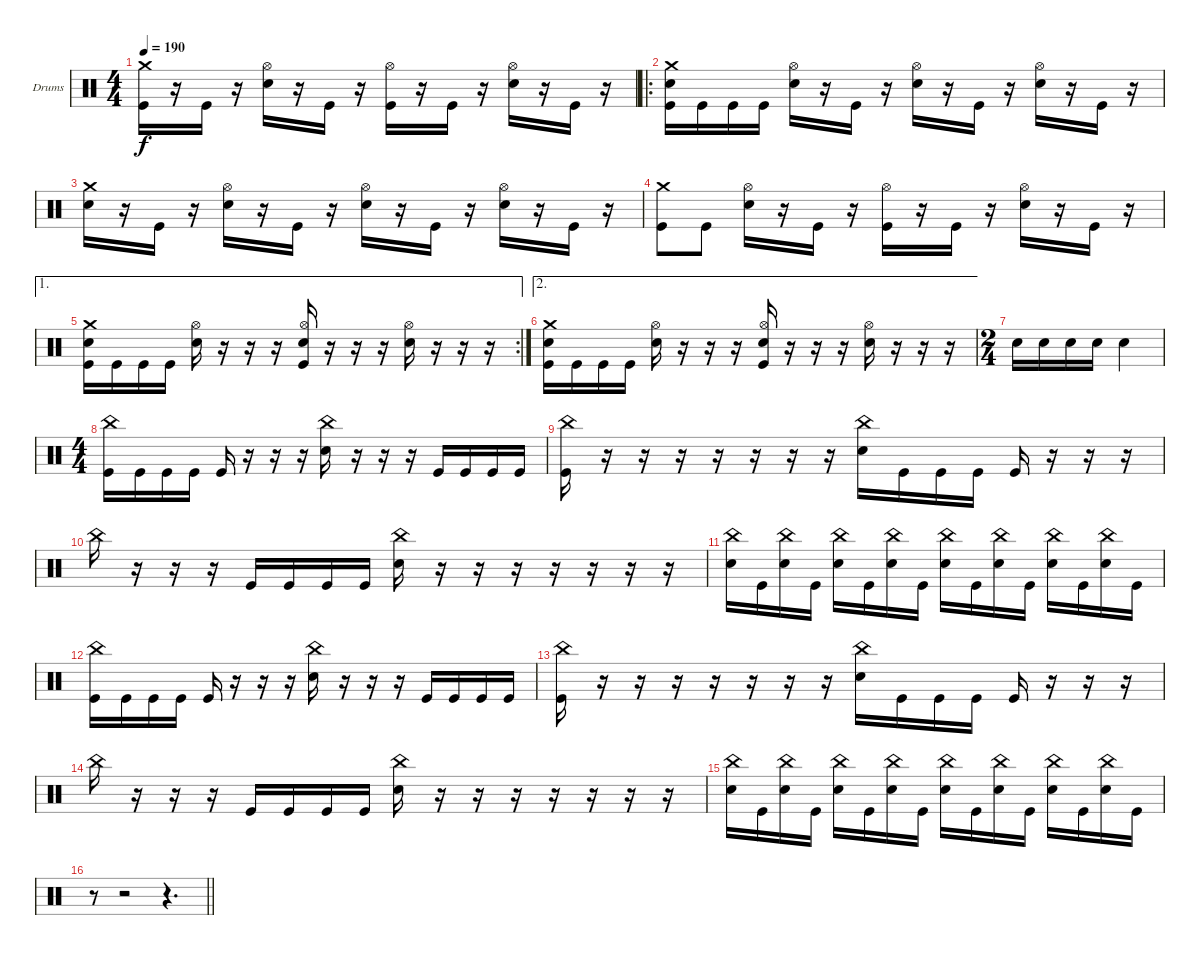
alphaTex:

\bracketExtendMode groupsimilarinstruments
\firstSystemTrackNameOrientation horizontal
\otherSystemsTrackNameOrientation horizontal
\track ("Drumkit" "Drums") {instrument percussion}
\staff {score}
\articulation defaults
\ts (4 4)
\tempo 190
\clef neutral
\ks c
("Crash medium (hit)" "Kick (hit)").16{dy f} r.16 "Kick (hit)".16 r.16 ("Hi-Hat (open)" "Snare (hit) 2").16 r.16 "Kick (hit)".16 r.16 ("Hi-Hat (open)" "Kick (hit)").16 r.16 "Kick (hit)".16 r.16 ("Hi-Hat (open)" "Snare (hit) 2").16 r.16 "Kick (hit)".16 r.16 |
\ro
("Crash medium (hit)" "Snare (hit) 2" "Kick (hit)").16 "Kick (hit)".16 "Kick (hit)".16 "Kick (hit)".16 ("Hi-Hat (open)" "Snare (hit) 2").16 r.16 "Kick (hit)".16 r.16 ("Hi-Hat (open)" "Snare (hit) 2").16 r.16 "Kick (hit)".16 r.16 ("Hi-Hat (open)" "Snare (hit) 2").16 r.16 "Kick (hit)".16 r.16 |
("Crash medium (hit)" "Snare (hit) 2").16 r.16 "Kick (hit)".16 r.16 ("Hi-Hat (open)" "Snare (hit) 2").16 r.16 "Kick (hit)".16 r.16 ("Hi-Hat (open)" "Snare (hit) 2").16 r.16 "Kick (hit)".16 r.16 ("Hi-Hat (open)" "Snare (hit) 2").16 r.16 "Kick (hit)".16 r.16 |
("Crash medium (hit)" "Kick (hit)").8 "Kick (hit)".8 ("Hi-Hat (open)" "Snare (hit) 2").16 r.16 "Kick (hit)".16 r.16 ("Hi-Hat (open)" "Kick (hit)").16 r.16 "Kick (hit)".16 r.16 ("Hi-Hat (open)" "Snare (hit) 2").16 r.16 "Kick (hit)".16 r.16 |
\ae 1
\rc 2
("Crash medium (hit)" "Snare (hit) 2" "Kick (hit)").16 "Kick (hit)".16 "Kick (hit)".16 "Kick (hit)".16 ("Hi-Hat (open)" "Snare (hit) 2").16 r.16 r.16 r.16 ("Hi-Hat (open)" "Snare (hit) 2" "Kick (hit)").16 r.16 r.16 r.16 ("Hi-Hat (open)" "Snare (hit) 2").16 r.16 r.16 r.16 |
\ae 2
("Crash medium (hit)" "Snare (hit) 2" "Kick (hit)").16 "Kick (hit)".16 "Kick (hit)".16 "Kick (hit)".16 ("Hi-Hat (open)" "Snare (hit) 2").16 r.16 r.16 r.16 ("Hi-Hat (open)" "Snare (hit) 2" "Kick (hit)").16 r.16 r.16 r.16 ("Hi-Hat (open)" "Snare (hit) 2").16 r.16 r.16 r.16 |
\ts (2 4)
\beaming (8 2 2)
"Snare (hit) 2".16 "Snare (hit) 2".16 "Snare (hit) 2".16 "Snare (hit) 2".16 "Snare (hit) 2".4 |
\ts (4 4)
\beaming (8 2 2 2 2)
("China (hit)" "Kick (hit)").16 "Kick (hit)".16 "Kick (hit)".16 "Kick (hit)".16 "Kick (hit)".16 r.16 r.16 r.16 ("China (hit)" "Snare (hit) 2").16 r.16 r.16 r.16 "Kick (hit)".16 "Kick (hit)".16 "Kick (hit)".16 "Kick (hit)".16 |
("China (hit)" "Kick (hit)").16 r.16 r.16 r.16 r.16 r.16 r.16 r.16 ("China (hit)" "Snare (hit) 2").16 "Kick (hit)".16 "Kick (hit)".16 "Kick (hit)".16 "Kick (hit)".16 r.16 r.16 r.16 |
"China (hit)".16 r.16 r.16 r.16 "Kick (hit)".16 "Kick (hit)".16 "Kick (hit)".16 "Kick (hit)".16 ("China (hit)" "Snare (hit) 2").16 r.16 r.16 r.16 r.16 r.16 r.16 r.16 |
("China (hit)" "Snare (hit) 2").16 "Kick (hit)".16 ("China (hit)" "Snare (hit) 2").16 "Kick (hit)".16 ("China (hit)" "Snare (hit) 2").16 "Kick (hit)".16 ("China (hit)" "Snare (hit) 2").16 "Kick (hit)".16 ("China (hit)" "Snare (hit) 2").16 "Kick (hit)".16 ("China (hit)" "Snare (hit) 2").16 "Kick (hit)".16 ("China (hit)" "Snare (hit) 2").16 "Kick (hit)".16 ("China (hit)" "Snare (hit) 2").16 "Kick (hit)".16 |
("China (hit)" "Kick (hit)").16 "Kick (hit)".16 "Kick (hit)".16 "Kick (hit)".16 "Kick (hit)".16 r.16 r.16 r.16 ("China (hit)" "Snare (hit) 2").16 r.16 r.16 r.16 "Kick (hit)".16 "Kick (hit)".16 "Kick (hit)".16 "Kick (hit)".16 |
("China (hit)" "Kick (hit)").16 r.16 r.16 r.16 r.16 r.16 r.16 r.16 ("China (hit)" "Snare (hit) 2").16 "Kick (hit)".16 "Kick (hit)".16 "Kick (hit)".16 "Kick (hit)".16 r.16 r.16 r.16 |
"China (hit)".16 r.16 r.16 r.16 "Kick (hit)".16 "Kick (hit)".16 "Kick (hit)".16 "Kick (hit)".16 ("China (hit)" "Snare (hit) 2").16 r.16 r.16 r.16 r.16 r.16 r.16 r.16 |
("China (hit)" "Snare (hit) 2").16 "Kick (hit)".16 ("China (hit)" "Snare (hit) 2").16 "Kick (hit)".16 ("China (hit)" "Snare (hit) 2").16 "Kick (hit)".16 ("China (hit)" "Snare (hit) 2").16 "Kick (hit)".16 ("China (hit)" "Snare (hit) 2").16 "Kick (hit)".16 ("China (hit)" "Snare (hit) 2").16 "Kick (hit)".16 ("China (hit)" "Snare (hit) 2").16 "Kick (hit)".16 ("China (hit)" "Snare (hit) 2").16 "Kick (hit)".16 |
\barLineRight lightlight
r.8 r.2 r.4{d}
